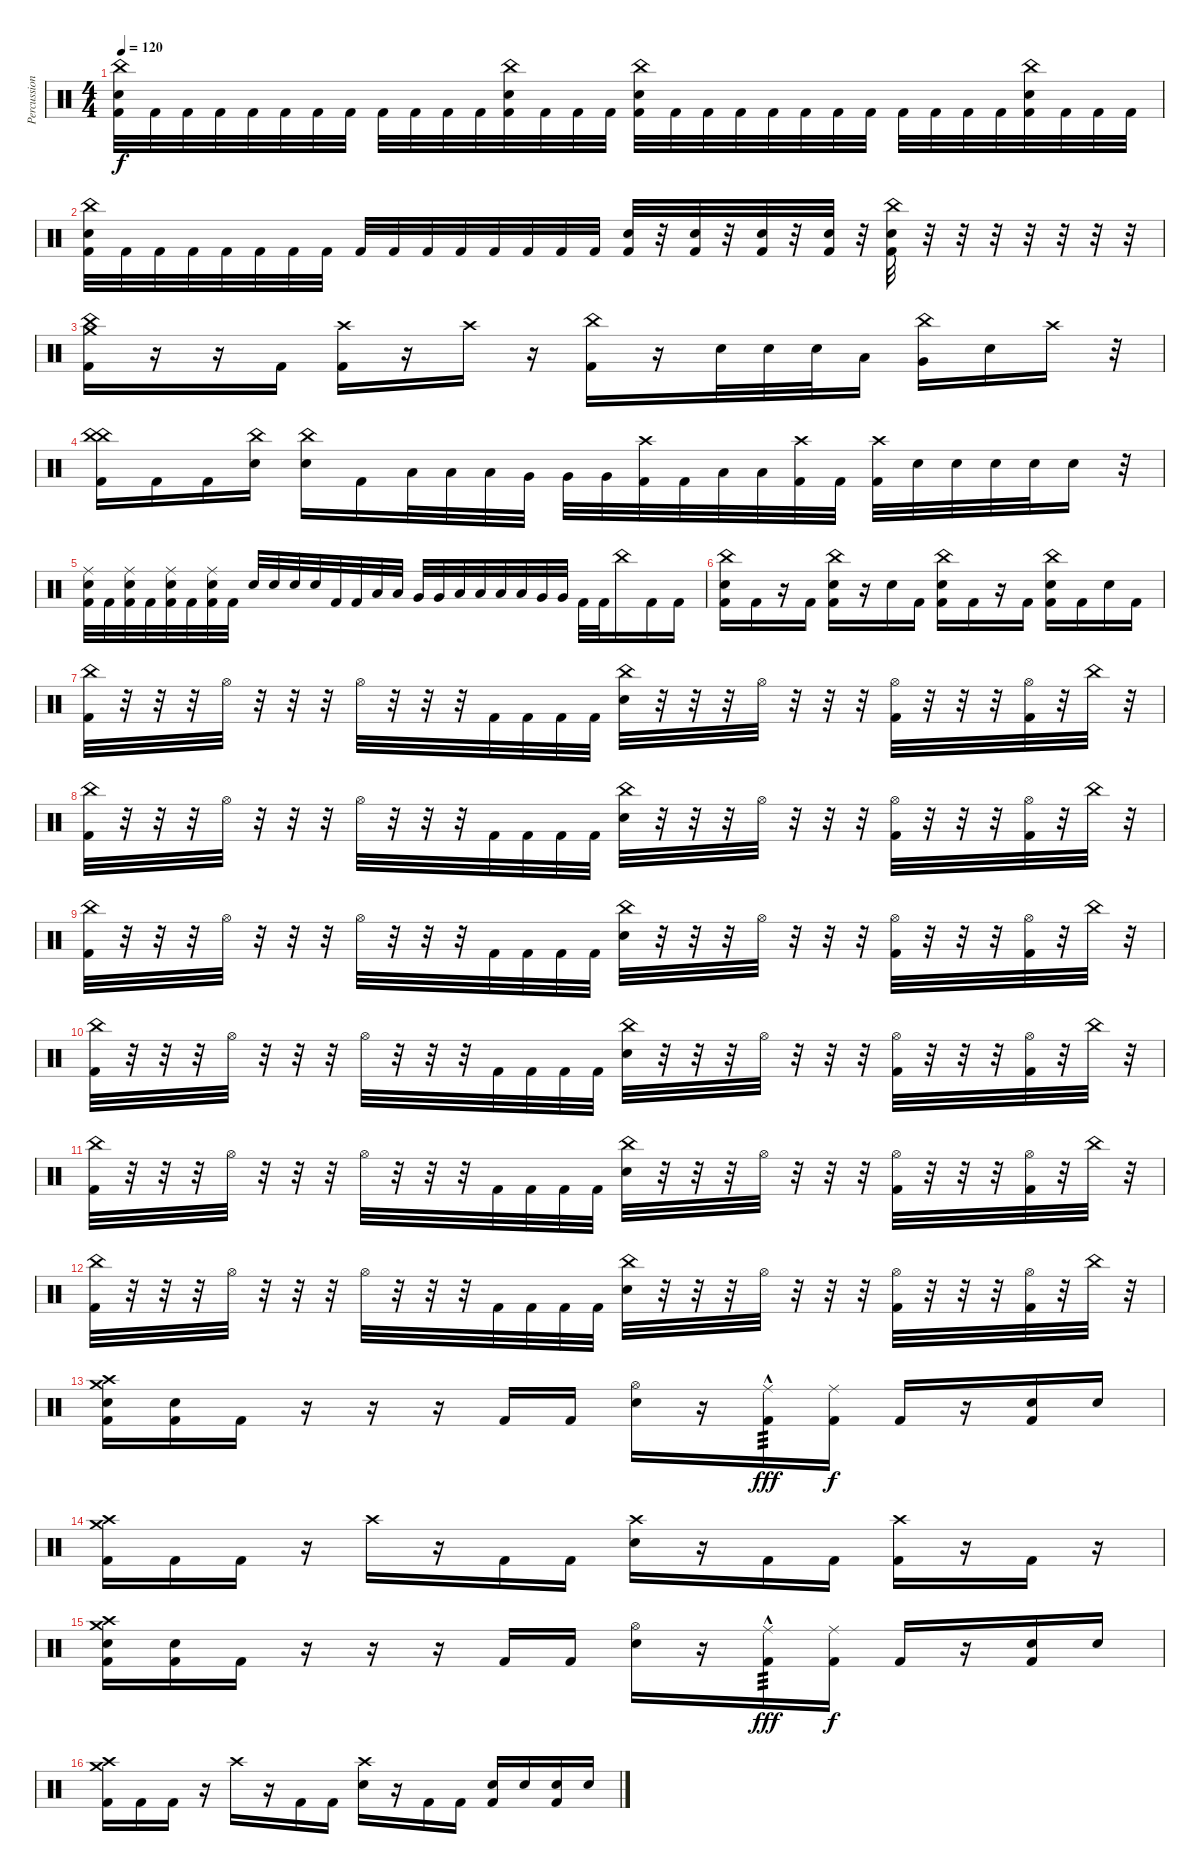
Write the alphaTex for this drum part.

\track ("Percussion" "Percussion") {instrument percussion}
\staff {score}
\articulation defaults
\ts (4 4)
\tempo 120
\clef neutral
\ks c
("China (hit)" "Electric Snare (hit)" "Kick (hit) 2").32{dy f} "Kick (hit) 2".32 "Kick (hit) 2".32 "Kick (hit) 2".32 "Kick (hit) 2".32 "Kick (hit) 2".32 "Kick (hit) 2".32 "Kick (hit) 2".32 "Kick (hit) 2".32 "Kick (hit) 2".32 "Kick (hit) 2".32 "Kick (hit) 2".32 ("China (hit)" "Electric Snare (hit)" "Kick (hit) 2").32 "Kick (hit) 2".32 "Kick (hit) 2".32 "Kick (hit) 2".32 ("China (hit)" "Electric Snare (hit)" "Kick (hit) 2").32 "Kick (hit) 2".32 "Kick (hit) 2".32 "Kick (hit) 2".32 "Kick (hit) 2".32 "Kick (hit) 2".32 "Kick (hit) 2".32 "Kick (hit) 2".32 "Kick (hit) 2".32 "Kick (hit) 2".32 "Kick (hit) 2".32 "Kick (hit) 2".32 ("China (hit)" "Electric Snare (hit)" "Kick (hit) 2").32 "Kick (hit) 2".32 "Kick (hit) 2".32 "Kick (hit) 2".32 |
("China (hit)" "Electric Snare (hit)" "Kick (hit) 2").32 "Kick (hit) 2".32 "Kick (hit) 2".32 "Kick (hit) 2".32 "Kick (hit) 2".32 "Kick (hit) 2".32 "Kick (hit) 2".32 "Kick (hit) 2".32 "Kick (hit) 2".32 "Kick (hit) 2".32 "Kick (hit) 2".32 "Kick (hit) 2".32 "Kick (hit) 2".32 "Kick (hit) 2".32 "Kick (hit) 2".32 "Kick (hit) 2".32 ("Electric Snare (hit)" "Kick (hit) 2").32 r.32 ("Electric Snare (hit)" "Kick (hit) 2").32 r.32 ("Electric Snare (hit)" "Kick (hit) 2").32 r.32 ("Electric Snare (hit)" "Kick (hit) 2").32 r.32 ("China (hit)" "Electric Snare (hit)" "Kick (hit) 2").32 r.32 r.32 r.32 r.32 r.32 r.32 r.32 |
("Crash medium (hit)" "China (hit)" "Kick (hit) 2").16 r.16 r.16 "Kick (hit) 2".16 ("Crash high (hit)" "Kick (hit) 2").16 r.16 "Crash high (hit)".16 r.16 ("China (hit)" "Kick (hit) 2").16 r.16 "Electric Snare (hit)".32 "Electric Snare (hit)".32 "Electric Snare (hit)".32 "Low Floor Tom (hit)".16 ("China (hit)" "Very Low Tom (hit)").16 "Electric Snare (hit)".16 "Crash high (hit)".16 r.32 |
("China (hit)" "China (hit)" "Kick (hit) 2").16 "Kick (hit) 2".16 "Kick (hit) 2".16 ("China (hit)" "Electric Snare (hit)").16 ("China (hit)" "Electric Snare (hit)").16 "Kick (hit) 2".16 "Low Floor Tom (hit)".32 "Low Floor Tom (hit)".32 "Low Floor Tom (hit)".32 "Very Low Tom (hit)".32 "Very Low Tom (hit)".32 "Very Low Tom (hit)".32 ("Crash high (hit)" "Kick (hit) 2").32 "Kick (hit) 2".32 "Low Tom (hit)".32 "Low Tom (hit)".32 ("Crash high (hit)" "Kick (hit) 2").32 "Kick (hit) 2".32 ("Crash high (hit)" "Kick (hit) 2").32 "Electric Snare (hit)".32 "Electric Snare (hit)".32 "Electric Snare (hit)".32 "Electric Snare (hit)".32 "Electric Snare (hit)".16 r.32 |
("Ride (middle)" "Electric Snare (hit)" "Kick (hit) 2").32 "Kick (hit) 2".32 ("Ride (middle)" "Electric Snare (hit)" "Kick (hit) 2").32 "Kick (hit) 2".32 ("Ride (middle)" "Electric Snare (hit)" "Kick (hit) 2").32 "Kick (hit) 2".32 ("Ride (middle)" "Electric Snare (hit)" "Kick (hit) 2").32 "Kick (hit) 2".32 "Electric Snare (hit)".32 "Electric Snare (hit)".32 "Electric Snare (hit)".32 "Electric Snare (hit)".32 "Kick (hit) 2".32 "Kick (hit) 2".32 "Low Floor Tom (hit)".32 "Low Floor Tom (hit)".32 "Very Low Tom (hit)".32 "Very Low Tom (hit)".32 "Low Floor Tom (hit)".32 "Low Floor Tom (hit)".32 "Low Floor Tom (hit)".32 "Low Floor Tom (hit)".32 "Very Low Tom (hit)".32 "Very Low Tom (hit)".32 "Kick (hit) 2".32 "Kick (hit) 2".32 "China (hit)".16 "Kick (hit) 2".16 "Kick (hit) 2".16 |
("China (hit)" "Electric Snare (hit)" "Kick (hit) 2").16 "Kick (hit) 2".16 r.16 "Kick (hit) 2".16 ("China (hit)" "Electric Snare (hit)" "Kick (hit) 2").16 r.16 "Electric Snare (hit)".16 "Kick (hit) 2".16 ("China (hit)" "Electric Snare (hit)" "Kick (hit) 2").16 "Kick (hit) 2".16 r.16 "Kick (hit) 2".16 ("China (hit)" "Electric Snare (hit)" "Kick (hit) 2").16 "Kick (hit) 2".16 "Electric Snare (hit)".16 "Kick (hit) 2".16 |
("China (hit)" "Kick (hit) 2").32 r.32 r.32 r.32 "Hi-Hat (open)".32 r.32 r.32 r.32 "Hi-Hat (open)".32 r.32 r.32 r.32 "Kick (hit) 2".32 "Kick (hit) 2".32 "Kick (hit) 2".32 "Kick (hit) 2".32 ("China (hit)" "Electric Snare (hit)").32 r.32 r.32 r.32 "Hi-Hat (open)".32 r.32 r.32 r.32 ("Hi-Hat (open)" "Kick (hit) 2").32 r.32 r.32 r.32 ("Hi-Hat (open)" "Kick (hit) 2").32 r.32 "China (hit)".32 r.32 |
("China (hit)" "Kick (hit) 2").32 r.32 r.32 r.32 "Hi-Hat (open)".32 r.32 r.32 r.32 "Hi-Hat (open)".32 r.32 r.32 r.32 "Kick (hit) 2".32 "Kick (hit) 2".32 "Kick (hit) 2".32 "Kick (hit) 2".32 ("China (hit)" "Electric Snare (hit)").32 r.32 r.32 r.32 "Hi-Hat (open)".32 r.32 r.32 r.32 ("Hi-Hat (open)" "Kick (hit) 2").32 r.32 r.32 r.32 ("Hi-Hat (open)" "Kick (hit) 2").32 r.32 "China (hit)".32 r.32 |
("China (hit)" "Kick (hit) 2").32 r.32 r.32 r.32 "Hi-Hat (open)".32 r.32 r.32 r.32 "Hi-Hat (open)".32 r.32 r.32 r.32 "Kick (hit) 2".32 "Kick (hit) 2".32 "Kick (hit) 2".32 "Kick (hit) 2".32 ("China (hit)" "Electric Snare (hit)").32 r.32 r.32 r.32 "Hi-Hat (open)".32 r.32 r.32 r.32 ("Hi-Hat (open)" "Kick (hit) 2").32 r.32 r.32 r.32 ("Hi-Hat (open)" "Kick (hit) 2").32 r.32 "China (hit)".32 r.32 |
("China (hit)" "Kick (hit) 2").32 r.32 r.32 r.32 "Hi-Hat (open)".32 r.32 r.32 r.32 "Hi-Hat (open)".32 r.32 r.32 r.32 "Kick (hit) 2".32 "Kick (hit) 2".32 "Kick (hit) 2".32 "Kick (hit) 2".32 ("China (hit)" "Electric Snare (hit)").32 r.32 r.32 r.32 "Hi-Hat (open)".32 r.32 r.32 r.32 ("Hi-Hat (open)" "Kick (hit) 2").32 r.32 r.32 r.32 ("Hi-Hat (open)" "Kick (hit) 2").32 r.32 "China (hit)".32 r.32 |
("China (hit)" "Kick (hit) 2").32 r.32 r.32 r.32 "Hi-Hat (open)".32 r.32 r.32 r.32 "Hi-Hat (open)".32 r.32 r.32 r.32 "Kick (hit) 2".32 "Kick (hit) 2".32 "Kick (hit) 2".32 "Kick (hit) 2".32 ("China (hit)" "Electric Snare (hit)").32 r.32 r.32 r.32 "Hi-Hat (open)".32 r.32 r.32 r.32 ("Hi-Hat (open)" "Kick (hit) 2").32 r.32 r.32 r.32 ("Hi-Hat (open)" "Kick (hit) 2").32 r.32 "China (hit)".32 r.32 |
("China (hit)" "Kick (hit) 2").32 r.32 r.32 r.32 "Hi-Hat (open)".32 r.32 r.32 r.32 "Hi-Hat (open)".32 r.32 r.32 r.32 "Kick (hit) 2".32 "Kick (hit) 2".32 "Kick (hit) 2".32 "Kick (hit) 2".32 ("China (hit)" "Electric Snare (hit)").32 r.32 r.32 r.32 "Hi-Hat (open)".32 r.32 r.32 r.32 ("Hi-Hat (open)" "Kick (hit) 2").32 r.32 r.32 r.32 ("Hi-Hat (open)" "Kick (hit) 2").32 r.32 "China (hit)".32 r.32 |
("Crash medium (hit)" "Crash high (hit)" "Electric Snare (hit)" "Kick (hit) 2").16 ("Electric Snare (hit)" "Kick (hit) 2").16 "Kick (hit) 2".16 r.16 r.16 r.16 "Kick (hit) 2".16 "Kick (hit) 2".16 ("Hi-Hat (open)" "Electric Snare (hit)").16 r.16 ("Ride (middle)"{hac} "Kick (hit) 2").16{tp 3 dy fff} ("Ride (middle)" "Kick (hit) 2").16{dy f} "Kick (hit) 2".16 r.16 ("Electric Snare (hit)" "Kick (hit) 2").16 "Electric Snare (hit)".16 |
("Crash medium (hit)" "Crash high (hit)" "Kick (hit) 2").16 "Kick (hit) 2".16 "Kick (hit) 2".16 r.16 "Crash high (hit)".16 r.16 "Kick (hit) 2".16 "Kick (hit) 2".16 ("Crash high (hit)" "Electric Snare (hit)").16 r.16 "Kick (hit) 2".16 "Kick (hit) 2".16 ("Crash high (hit)" "Kick (hit) 2").16 r.16 "Kick (hit) 2".16 r.16 |
("Crash medium (hit)" "Crash high (hit)" "Electric Snare (hit)" "Kick (hit) 2").16 ("Electric Snare (hit)" "Kick (hit) 2").16 "Kick (hit) 2".16 r.16 r.16 r.16 "Kick (hit) 2".16 "Kick (hit) 2".16 ("Hi-Hat (open)" "Electric Snare (hit)").16 r.16 ("Ride (middle)"{hac} "Kick (hit) 2").16{tp 3 dy fff} ("Ride (middle)" "Kick (hit) 2").16{dy f} "Kick (hit) 2".16 r.16 ("Electric Snare (hit)" "Kick (hit) 2").16 "Electric Snare (hit)".16 |
("Crash medium (hit)" "Crash high (hit)" "Kick (hit) 2").16 "Kick (hit) 2".16 "Kick (hit) 2".16 r.16 "Crash high (hit)".16 r.16 "Kick (hit) 2".16 "Kick (hit) 2".16 ("Crash high (hit)" "Electric Snare (hit)").16 r.16 "Kick (hit) 2".16 "Kick (hit) 2".16 ("Electric Snare (hit)" "Kick (hit) 2").16 "Electric Snare (hit)".16 ("Electric Snare (hit)" "Kick (hit) 2").16 "Electric Snare (hit)".16
